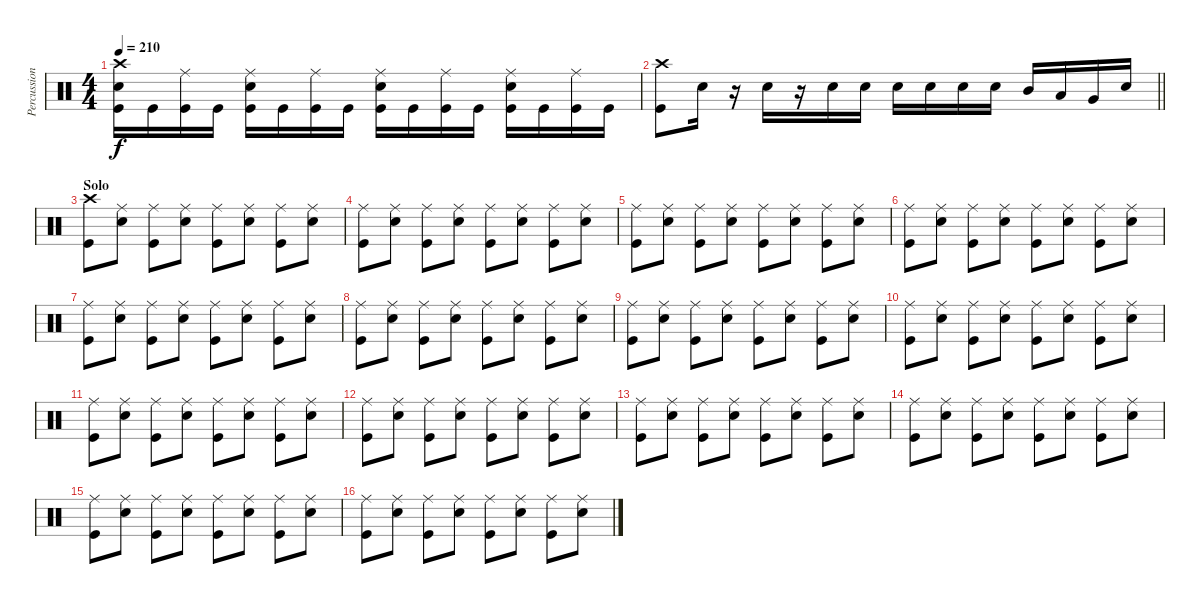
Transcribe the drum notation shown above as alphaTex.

\track ("Percussion" "Percussion") {instrument percussion}
\staff {score}
\articulation defaults
\ts (4 4)
\tempo 210
\clef neutral
\ks c
("Crash high (hit)" "Snare (hit) 2" "Kick (hit)").16{dy f} "Kick (hit)".16 ("Ride (middle)" "Kick (hit)").16 "Kick (hit)".16 ("Ride (middle)" "Snare (hit) 2" "Kick (hit)").16 "Kick (hit)".16 ("Ride (middle)" "Kick (hit)").16 "Kick (hit)".16 ("Ride (middle)" "Snare (hit) 2" "Kick (hit)").16 "Kick (hit)".16 ("Ride (middle)" "Kick (hit)").16 "Kick (hit)".16 ("Ride (middle)" "Snare (hit) 2" "Kick (hit)").16 "Kick (hit)".16 ("Ride (middle)" "Kick (hit)").16 "Kick (hit)".16 |
\barLineRight lightlight
("Crash high (hit)" "Kick (hit)").8 "Snare (hit) 2".16 r.16 "Snare (hit) 2".16 r.16 "Snare (hit) 2".16 "Snare (hit) 2".16 "Snare (hit) 2".16 "Snare (hit) 2".16 "Snare (hit) 2".16 "Snare (hit) 2".16 "Mid Tom (hit)".16 "Low Tom (hit)".16 "Very Low Tom (hit)".16 "Snare (hit) 2".16 |
\section ("" "Solo")
("Crash high (hit)" "Kick (hit)").8 ("Ride (middle)" "Snare (hit) 2").8 ("Ride (middle)" "Kick (hit)").8 ("Ride (middle)" "Snare (hit) 2").8 ("Ride (middle)" "Kick (hit)").8 ("Ride (middle)" "Snare (hit) 2").8 ("Ride (middle)" "Kick (hit)").8 ("Ride (middle)" "Snare (hit) 2").8 |
("Ride (middle)" "Kick (hit)").8 ("Ride (middle)" "Snare (hit) 2").8 ("Ride (middle)" "Kick (hit)").8 ("Ride (middle)" "Snare (hit) 2").8 ("Ride (middle)" "Kick (hit)").8 ("Ride (middle)" "Snare (hit) 2").8 ("Ride (middle)" "Kick (hit)").8 ("Ride (middle)" "Snare (hit) 2").8 |
("Ride (middle)" "Kick (hit)").8 ("Ride (middle)" "Snare (hit) 2").8 ("Ride (middle)" "Kick (hit)").8 ("Ride (middle)" "Snare (hit) 2").8 ("Ride (middle)" "Kick (hit)").8 ("Ride (middle)" "Snare (hit) 2").8 ("Ride (middle)" "Kick (hit)").8 ("Ride (middle)" "Snare (hit) 2").8 |
("Ride (middle)" "Kick (hit)").8 ("Ride (middle)" "Snare (hit) 2").8 ("Ride (middle)" "Kick (hit)").8 ("Ride (middle)" "Snare (hit) 2").8 ("Ride (middle)" "Kick (hit)").8 ("Ride (middle)" "Snare (hit) 2").8 ("Ride (middle)" "Kick (hit)").8 ("Ride (middle)" "Snare (hit) 2").8 |
("Ride (middle)" "Kick (hit)").8 ("Ride (middle)" "Snare (hit) 2").8 ("Ride (middle)" "Kick (hit)").8 ("Ride (middle)" "Snare (hit) 2").8 ("Ride (middle)" "Kick (hit)").8 ("Ride (middle)" "Snare (hit) 2").8 ("Ride (middle)" "Kick (hit)").8 ("Ride (middle)" "Snare (hit) 2").8 |
("Ride (middle)" "Kick (hit)").8 ("Ride (middle)" "Snare (hit) 2").8 ("Ride (middle)" "Kick (hit)").8 ("Ride (middle)" "Snare (hit) 2").8 ("Ride (middle)" "Kick (hit)").8 ("Ride (middle)" "Snare (hit) 2").8 ("Ride (middle)" "Kick (hit)").8 ("Ride (middle)" "Snare (hit) 2").8 |
("Ride (middle)" "Kick (hit)").8 ("Ride (middle)" "Snare (hit) 2").8 ("Ride (middle)" "Kick (hit)").8 ("Ride (middle)" "Snare (hit) 2").8 ("Ride (middle)" "Kick (hit)").8 ("Ride (middle)" "Snare (hit) 2").8 ("Ride (middle)" "Kick (hit)").8 ("Ride (middle)" "Snare (hit) 2").8 |
("Ride (middle)" "Kick (hit)").8 ("Ride (middle)" "Snare (hit) 2").8 ("Ride (middle)" "Kick (hit)").8 ("Ride (middle)" "Snare (hit) 2").8 ("Ride (middle)" "Kick (hit)").8 ("Ride (middle)" "Snare (hit) 2").8 ("Ride (middle)" "Kick (hit)").8 ("Ride (middle)" "Snare (hit) 2").8 |
("Ride (middle)" "Kick (hit)").8 ("Ride (middle)" "Snare (hit) 2").8 ("Ride (middle)" "Kick (hit)").8 ("Ride (middle)" "Snare (hit) 2").8 ("Ride (middle)" "Kick (hit)").8 ("Ride (middle)" "Snare (hit) 2").8 ("Ride (middle)" "Kick (hit)").8 ("Ride (middle)" "Snare (hit) 2").8 |
("Ride (middle)" "Kick (hit)").8 ("Ride (middle)" "Snare (hit) 2").8 ("Ride (middle)" "Kick (hit)").8 ("Ride (middle)" "Snare (hit) 2").8 ("Ride (middle)" "Kick (hit)").8 ("Ride (middle)" "Snare (hit) 2").8 ("Ride (middle)" "Kick (hit)").8 ("Ride (middle)" "Snare (hit) 2").8 |
("Ride (middle)" "Kick (hit)").8 ("Ride (middle)" "Snare (hit) 2").8 ("Ride (middle)" "Kick (hit)").8 ("Ride (middle)" "Snare (hit) 2").8 ("Ride (middle)" "Kick (hit)").8 ("Ride (middle)" "Snare (hit) 2").8 ("Ride (middle)" "Kick (hit)").8 ("Ride (middle)" "Snare (hit) 2").8 |
("Ride (middle)" "Kick (hit)").8 ("Ride (middle)" "Snare (hit) 2").8 ("Ride (middle)" "Kick (hit)").8 ("Ride (middle)" "Snare (hit) 2").8 ("Ride (middle)" "Kick (hit)").8 ("Ride (middle)" "Snare (hit) 2").8 ("Ride (middle)" "Kick (hit)").8 ("Ride (middle)" "Snare (hit) 2").8 |
("Ride (middle)" "Kick (hit)").8 ("Ride (middle)" "Snare (hit) 2").8 ("Ride (middle)" "Kick (hit)").8 ("Ride (middle)" "Snare (hit) 2").8 ("Ride (middle)" "Kick (hit)").8 ("Ride (middle)" "Snare (hit) 2").8 ("Ride (middle)" "Kick (hit)").8 ("Ride (middle)" "Snare (hit) 2").8 |
("Ride (middle)" "Kick (hit)").8 ("Ride (middle)" "Snare (hit) 2").8 ("Ride (middle)" "Kick (hit)").8 ("Ride (middle)" "Snare (hit) 2").8 ("Ride (middle)" "Kick (hit)").8 ("Ride (middle)" "Snare (hit) 2").8 ("Ride (middle)" "Kick (hit)").8 ("Ride (middle)" "Snare (hit) 2").8
